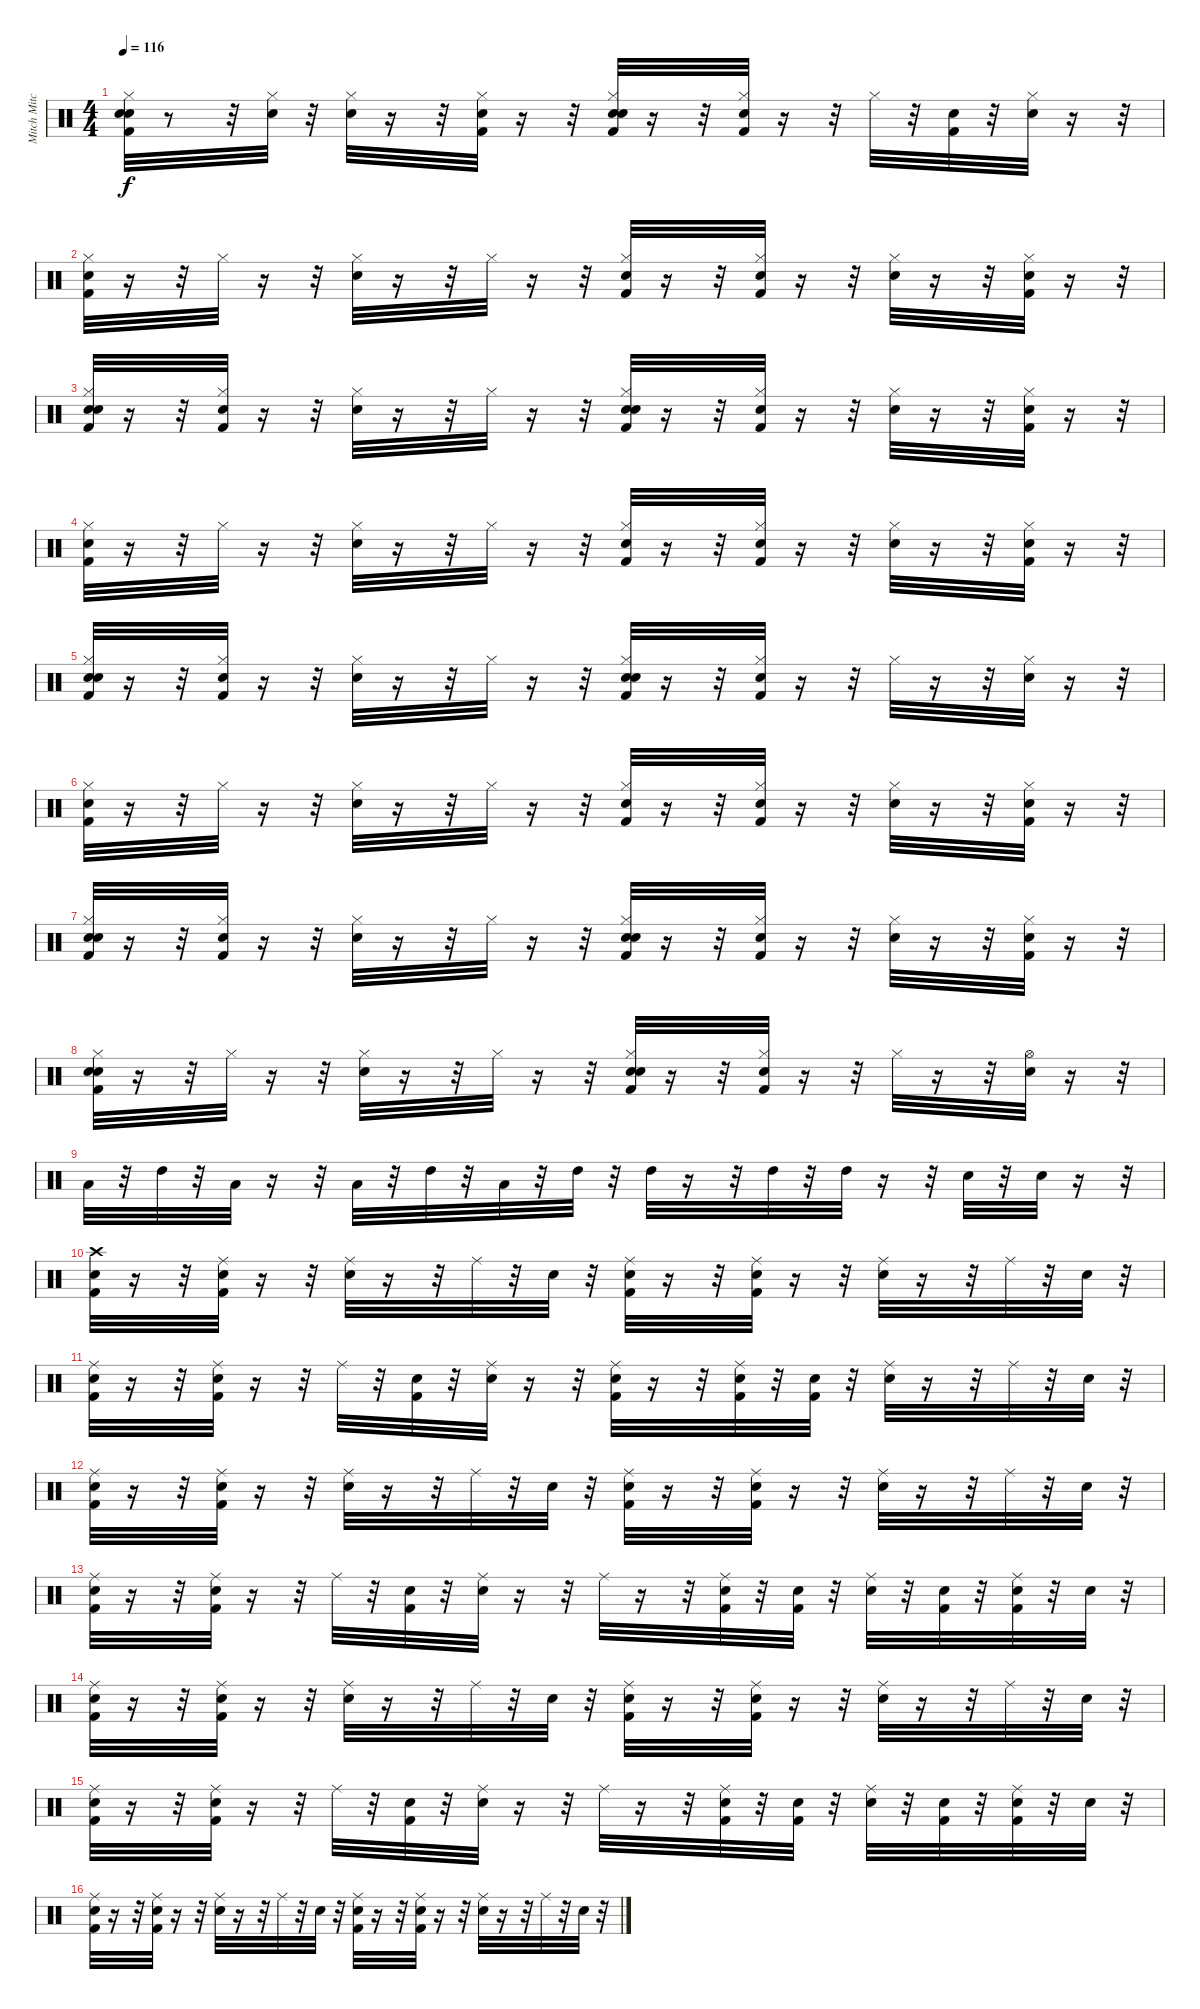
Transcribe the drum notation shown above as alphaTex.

\track ("Mitch Mitchell" "Mitch Mitc") {instrument percussion}
\staff {score}
\articulation defaults
\ts (4 4)
\tempo 116
\clef neutral
\ks c
("Snare (hit) 2" "Snare (hit)" "Hi-Hat (closed)" "Kick (hit) 2").32{dy f} r.8 r.32 ("Snare (hit) 2" "Hi-Hat (closed)").32 r.32 ("Snare (hit) 2" "Hi-Hat (closed)").32 r.16 r.32 ("Snare (hit)" "Kick (hit) 2" "Hi-Hat (closed)").32 r.16 r.32 ("Snare (hit) 2" "Kick (hit) 2" "Snare (hit)" "Hi-Hat (closed)").32 r.16 r.32 ("Kick (hit) 2" "Snare (hit)" "Hi-Hat (closed)").32 r.16 r.32 "Hi-Hat (closed)".32 r.32 ("Kick (hit) 2" "Snare (hit)").32 r.32 ("Snare (hit) 2" "Hi-Hat (closed)").32 r.16 r.32 |
("Hi-Hat (closed)" "Kick (hit) 2" "Snare (hit)").32 r.16 r.32 "Hi-Hat (closed)".32 r.16 r.32 ("Hi-Hat (closed)" "Snare (hit) 2").32 r.16 r.32 "Hi-Hat (closed)".32 r.16 r.32 ("Hi-Hat (closed)" "Kick (hit) 2" "Snare (hit)").32 r.16 r.32 ("Hi-Hat (closed)" "Kick (hit) 2" "Snare (hit)").32 r.16 r.32 ("Hi-Hat (closed)" "Snare (hit) 2").32 r.16 r.32 ("Hi-Hat (closed)" "Kick (hit) 2" "Snare (hit)").32 r.16 r.32 |
("Snare (hit) 2" "Kick (hit) 2" "Snare (hit)" "Hi-Hat (closed)").32 r.16 r.32 ("Snare (hit)" "Kick (hit) 2" "Hi-Hat (closed)").32 r.16 r.32 ("Snare (hit) 2" "Hi-Hat (closed)").32 r.16 r.32 "Hi-Hat (closed)".32 r.16 r.32 ("Snare (hit) 2" "Kick (hit) 2" "Snare (hit)" "Hi-Hat (closed)").32 r.16 r.32 ("Snare (hit)" "Hi-Hat (closed)" "Kick (hit) 2").32 r.16 r.32 ("Snare (hit) 2" "Hi-Hat (closed)").32 r.16 r.32 ("Snare (hit)" "Kick (hit) 2" "Hi-Hat (closed)").32 r.16 r.32 |
("Hi-Hat (closed)" "Kick (hit) 2" "Snare (hit)").32 r.16 r.32 "Hi-Hat (closed)".32 r.16 r.32 ("Hi-Hat (closed)" "Snare (hit) 2").32 r.16 r.32 "Hi-Hat (closed)".32 r.16 r.32 ("Hi-Hat (closed)" "Kick (hit) 2" "Snare (hit)").32 r.16 r.32 ("Hi-Hat (closed)" "Kick (hit) 2" "Snare (hit)").32 r.16 r.32 ("Hi-Hat (closed)" "Snare (hit) 2").32 r.16 r.32 ("Hi-Hat (closed)" "Kick (hit) 2" "Snare (hit)").32 r.16 r.32 |
("Snare (hit) 2" "Kick (hit) 2" "Snare (hit)" "Hi-Hat (closed)").32 r.16 r.32 ("Snare (hit)" "Kick (hit) 2" "Hi-Hat (closed)").32 r.16 r.32 ("Snare (hit) 2" "Hi-Hat (closed)").32 r.16 r.32 "Hi-Hat (closed)".32 r.16 r.32 ("Snare (hit) 2" "Kick (hit) 2" "Snare (hit)" "Hi-Hat (closed)").32 r.16 r.32 ("Snare (hit)" "Hi-Hat (closed)" "Kick (hit) 2").32 r.16 r.32 "Hi-Hat (closed)".32 r.16 r.32 ("Snare (hit) 2" "Hi-Hat (closed)").32 r.16 r.32 |
("Hi-Hat (closed)" "Kick (hit) 2" "Snare (hit)").32 r.16 r.32 "Hi-Hat (closed)".32 r.16 r.32 ("Hi-Hat (closed)" "Snare (hit) 2").32 r.16 r.32 "Hi-Hat (closed)".32 r.16 r.32 ("Hi-Hat (closed)" "Kick (hit) 2" "Snare (hit)").32 r.16 r.32 ("Hi-Hat (closed)" "Kick (hit) 2" "Snare (hit)").32 r.16 r.32 ("Hi-Hat (closed)" "Snare (hit) 2").32 r.16 r.32 ("Hi-Hat (closed)" "Kick (hit) 2" "Snare (hit)").32 r.16 r.32 |
("Snare (hit) 2" "Kick (hit) 2" "Snare (hit)" "Hi-Hat (closed)").32 r.16 r.32 ("Snare (hit)" "Kick (hit) 2" "Hi-Hat (closed)").32 r.16 r.32 ("Snare (hit) 2" "Hi-Hat (closed)").32 r.16 r.32 "Hi-Hat (closed)".32 r.16 r.32 ("Snare (hit) 2" "Kick (hit) 2" "Snare (hit)" "Hi-Hat (closed)").32 r.16 r.32 ("Snare (hit)" "Hi-Hat (closed)" "Kick (hit) 2").32 r.16 r.32 ("Snare (hit) 2" "Hi-Hat (closed)").32 r.16 r.32 ("Snare (hit)" "Kick (hit) 2" "Hi-Hat (closed)").32 r.16 r.32 |
("Hi-Hat (closed)" "Snare (hit) 2" "Kick (hit) 2" "Snare (hit)").32 r.16 r.32 "Hi-Hat (closed)".32 r.16 r.32 ("Hi-Hat (closed)" "Snare (hit) 2").32 r.16 r.32 "Hi-Hat (closed)".32 r.16 r.32 ("Hi-Hat (closed)" "Snare (hit) 2" "Kick (hit) 2" "Snare (hit)").32 r.16 r.32 ("Kick (hit) 2" "Hi-Hat (closed)" "Snare (hit)").32 r.16 r.32 "Hi-Hat (closed)".32 r.16 r.32 ("Hi-Hat (open)" "Snare (hit) 2").32 r.16 r.32 |
"Low Floor Tom (hit)".32 r.32 "High Tom (hit)".32 r.32 "Low Floor Tom (hit)".32 r.16 r.32 "Low Floor Tom (hit)".32 r.32 "High Tom (hit)".32 r.32 "Low Floor Tom (hit)".32 r.32 "High Tom (hit)".32 r.32 "High Tom (hit)".32 r.16 r.32 "High Tom (hit)".32 r.32 "High Tom (hit)".32 r.16 r.32 "Snare (hit) 2".32 r.32 "Snare (hit) 2".32 r.16 r.32 |
("Kick (hit) 2" "Snare (hit)" "Crash high (hit)").32 r.16 r.32 ("Kick (hit) 2" "Snare (hit)" "Ride (middle)").32 r.16 r.32 ("Snare (hit) 2" "Ride (middle)").32 r.16 r.32 "Ride (middle)".32 r.32 "Snare (hit) 2".32 r.32 ("Kick (hit) 2" "Snare (hit)" "Ride (middle)").32 r.16 r.32 ("Kick (hit) 2" "Snare (hit)" "Ride (middle)").32 r.16 r.32 ("Snare (hit) 2" "Ride (middle)").32 r.16 r.32 "Ride (middle)".32 r.32 "Snare (hit) 2".32 r.32 |
("Snare (hit)" "Ride (middle)" "Kick (hit) 2").32 r.16 r.32 ("Snare (hit)" "Ride (middle)" "Kick (hit) 2").32 r.16 r.32 "Ride (middle)".32 r.32 ("Snare (hit)" "Kick (hit) 2").32 r.32 ("Ride (middle)" "Snare (hit) 2").32 r.16 r.32 ("Snare (hit)" "Ride (middle)" "Kick (hit) 2").32 r.16 r.32 ("Snare (hit)" "Ride (middle)" "Kick (hit) 2").32 r.32 ("Snare (hit)" "Kick (hit) 2").32 r.32 ("Ride (middle)" "Snare (hit) 2").32 r.16 r.32 "Ride (middle)".32 r.32 "Snare (hit) 2".32 r.32 |
("Kick (hit) 2" "Snare (hit)" "Ride (middle)").32 r.16 r.32 ("Kick (hit) 2" "Snare (hit)" "Ride (middle)").32 r.16 r.32 ("Ride (middle)" "Snare (hit) 2").32 r.16 r.32 "Ride (middle)".32 r.32 "Snare (hit) 2".32 r.32 ("Kick (hit) 2" "Snare (hit)" "Ride (middle)").32 r.16 r.32 ("Snare (hit)" "Kick (hit) 2" "Ride (middle)").32 r.16 r.32 ("Snare (hit) 2" "Ride (middle)").32 r.16 r.32 "Ride (middle)".32 r.32 "Snare (hit) 2".32 r.32 |
("Kick (hit) 2" "Snare (hit)" "Ride (middle)").32 r.16 r.32 ("Snare (hit)" "Kick (hit) 2" "Ride (middle)").32 r.16 r.32 "Ride (middle)".32 r.32 ("Kick (hit) 2" "Snare (hit)").32 r.32 ("Snare (hit) 2" "Ride (middle)").32 r.16 r.32 "Ride (middle)".32 r.16 r.32 ("Snare (hit)" "Kick (hit) 2" "Ride (middle)").32 r.32 ("Snare (hit)" "Kick (hit) 2").32 r.32 ("Snare (hit) 2" "Ride (middle)").32 r.32 ("Snare (hit)" "Kick (hit) 2").32 r.32 ("Snare (hit)" "Kick (hit) 2" "Ride (middle)").32 r.32 "Snare (hit) 2".32 r.32 |
("Kick (hit) 2" "Snare (hit)" "Ride (middle)").32 r.16 r.32 ("Kick (hit) 2" "Snare (hit)" "Ride (middle)").32 r.16 r.32 ("Ride (middle)" "Snare (hit) 2").32 r.16 r.32 "Ride (middle)".32 r.32 "Snare (hit) 2".32 r.32 ("Kick (hit) 2" "Snare (hit)" "Ride (middle)").32 r.16 r.32 ("Snare (hit)" "Kick (hit) 2" "Ride (middle)").32 r.16 r.32 ("Snare (hit) 2" "Ride (middle)").32 r.16 r.32 "Ride (middle)".32 r.32 "Snare (hit) 2".32 r.32 |
("Kick (hit) 2" "Snare (hit)" "Ride (middle)").32 r.16 r.32 ("Snare (hit)" "Kick (hit) 2" "Ride (middle)").32 r.16 r.32 "Ride (middle)".32 r.32 ("Kick (hit) 2" "Snare (hit)").32 r.32 ("Snare (hit) 2" "Ride (middle)").32 r.16 r.32 "Ride (middle)".32 r.16 r.32 ("Snare (hit)" "Kick (hit) 2" "Ride (middle)").32 r.32 ("Snare (hit)" "Kick (hit) 2").32 r.32 ("Snare (hit) 2" "Ride (middle)").32 r.32 ("Snare (hit)" "Kick (hit) 2").32 r.32 ("Snare (hit)" "Kick (hit) 2" "Ride (middle)").32 r.32 "Snare (hit) 2".32 r.32 |
("Kick (hit) 2" "Snare (hit)" "Ride (middle)").32 r.16 r.32 ("Snare (hit)" "Kick (hit) 2" "Ride (middle)").32 r.16 r.32 ("Snare (hit) 2" "Ride (middle)").32 r.16 r.32 "Ride (middle)".32 r.32 "Snare (hit) 2".32 r.32 ("Snare (hit)" "Kick (hit) 2" "Ride (middle)").32 r.16 r.32 ("Kick (hit) 2" "Snare (hit)" "Ride (middle)").32 r.16 r.32 ("Snare (hit) 2" "Ride (middle)").32 r.16 r.32 "Ride (middle)".32 r.32 "Snare (hit) 2".32 r.32
